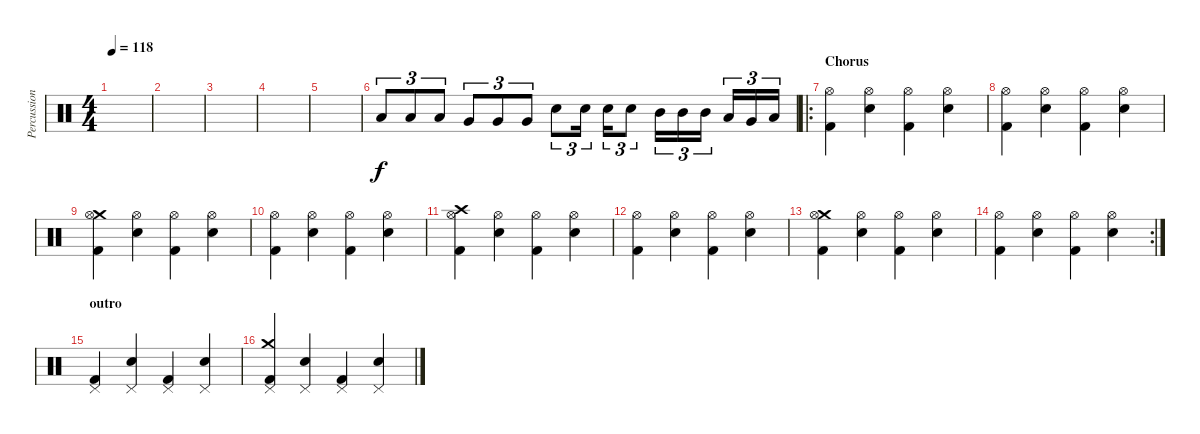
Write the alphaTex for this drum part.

\track ("Percussion" "Percussion") {instrument percussion}
\staff {score}
\articulation defaults
\ts (4 4)
\tempo 118
\clef neutral
\ks c
|
|
|
|
|
"Low Tom (hit)".8{tu (3 2)} "Low Tom (hit)".8{tu (3 2)} "Low Tom (hit)".8{tu (3 2)} "Very Low Tom (hit)".8{tu (3 2)} "Very Low Tom (hit)".8{tu (3 2)} "Very Low Tom (hit)".8{tu (3 2)} "Electric Snare (hit)".8{tu (3 2)} "Electric Snare (hit)".16{tu (3 2)} "Electric Snare (hit)".16{tu (3 2)} "Electric Snare (hit)".8{tu (3 2)} "Mid Tom (hit)".16{tu (3 2)} "Mid Tom (hit)".16{tu (3 2)} "Mid Tom (hit)".16{tu (3 2)} "Low Tom (hit)".16{tu (3 2)} "Very Low Tom (hit)".16{tu (3 2)} "Low Floor Tom (hit)".16{tu (3 2)} |
\ro
\section ("" "Chorus")
("Hi-Hat (open)" "Kick (hit) 2").4 ("Hi-Hat (open)" "Electric Snare (hit)").4 ("Hi-Hat (open)" "Kick (hit) 2").4 ("Hi-Hat (open)" "Electric Snare (hit)").4 |
("Hi-Hat (open)" "Kick (hit) 2").4 ("Hi-Hat (open)" "Electric Snare (hit)").4 ("Hi-Hat (open)" "Kick (hit) 2").4 ("Hi-Hat (open)" "Electric Snare (hit)").4 |
("Crash medium (hit)" "Hi-Hat (open)" "Kick (hit) 2").4 ("Hi-Hat (open)" "Electric Snare (hit)").4 ("Hi-Hat (open)" "Kick (hit) 2").4 ("Hi-Hat (open)" "Electric Snare (hit)").4 |
("Hi-Hat (open)" "Kick (hit) 2").4 ("Hi-Hat (open)" "Electric Snare (hit)").4 ("Hi-Hat (open)" "Kick (hit) 2").4 ("Hi-Hat (open)" "Electric Snare (hit)").4 |
("Crash high (hit)" "Hi-Hat (open)" "Kick (hit) 2").4 ("Hi-Hat (open)" "Electric Snare (hit)").4 ("Hi-Hat (open)" "Kick (hit) 2").4 ("Hi-Hat (open)" "Electric Snare (hit)").4 |
("Hi-Hat (open)" "Kick (hit) 2").4 ("Hi-Hat (open)" "Electric Snare (hit)").4 ("Hi-Hat (open)" "Kick (hit) 2").4 ("Hi-Hat (open)" "Electric Snare (hit)").4 |
("Crash medium (hit)" "Hi-Hat (open)" "Kick (hit) 2").4 ("Hi-Hat (open)" "Electric Snare (hit)").4 ("Hi-Hat (open)" "Kick (hit) 2").4 ("Hi-Hat (open)" "Electric Snare (hit)").4 |
\rc 2
("Hi-Hat (open)" "Kick (hit) 2").4 ("Hi-Hat (open)" "Electric Snare (hit)").4 ("Hi-Hat (open)" "Kick (hit) 2").4 ("Hi-Hat (open)" "Electric Snare (hit)").4 |
\section ("" "outro")
("Pedal Hi-Hat (hit)" "Kick (hit) 2").4 ("Pedal Hi-Hat (hit)" "Electric Snare (hit)").4 ("Pedal Hi-Hat (hit)" "Kick (hit) 2").4 ("Pedal Hi-Hat (hit)" "Electric Snare (hit)").4 |
("Crash medium (hit)" "Pedal Hi-Hat (hit)" "Kick (hit) 2").4 ("Pedal Hi-Hat (hit)" "Electric Snare (hit)").4 ("Pedal Hi-Hat (hit)" "Kick (hit) 2").4 ("Pedal Hi-Hat (hit)" "Electric Snare (hit)").4
